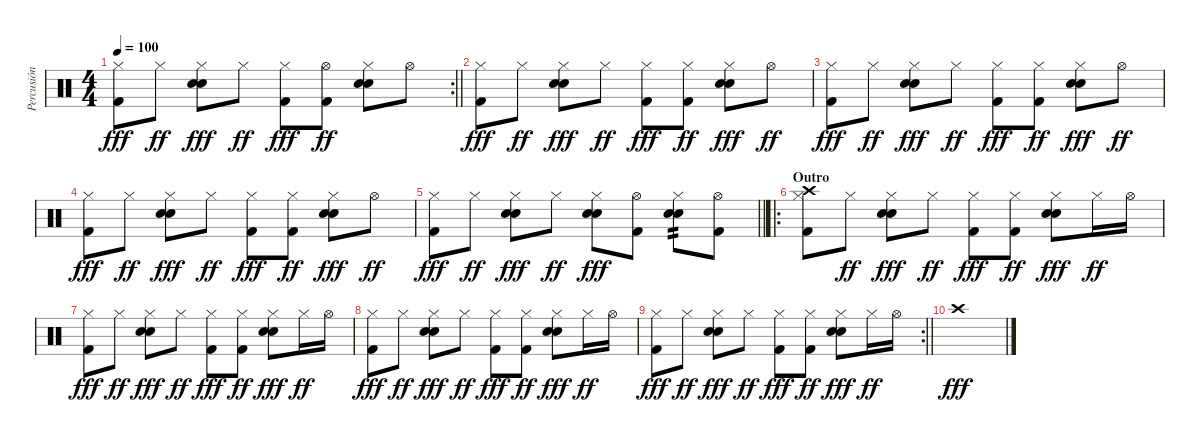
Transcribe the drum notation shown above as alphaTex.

\track ("Percusión" "Percusión") {instrument percussion}
\staff {score}
\articulation defaults
\rc 2
\ts (4 4)
\tempo 100
\clef neutral
\barLineRight lightlight
\ks c
("Hi-Hat (closed)" "Kick (hit) 2").8{dy fff} "Hi-Hat (closed)".8{dy ff} ("Hi-Hat (closed)" "Electric Snare (hit)" "Electric Snare (hit)").8{dy fff} "Hi-Hat (closed)".8{dy ff} ("Hi-Hat (closed)" "Kick (hit) 2").8{dy fff} ("Hi-Hat (open)" "Kick (hit) 2").8{dy ff} ("Hi-Hat (closed)" "Electric Snare (hit)" "Electric Snare (hit)").8 "Hi-Hat (open)".8 |
("Hi-Hat (closed)" "Kick (hit) 2").8{dy fff} "Hi-Hat (closed)".8{dy ff} ("Hi-Hat (closed)" "Electric Snare (hit)" "Electric Snare (hit)").8{dy fff} "Hi-Hat (closed)".8{dy ff} ("Hi-Hat (closed)" "Kick (hit) 2").8{dy fff} ("Hi-Hat (closed)" "Kick (hit) 2").8{dy ff} ("Hi-Hat (closed)" "Electric Snare (hit)" "Electric Snare (hit)").8{dy fff} "Hi-Hat (open)".8{dy ff} |
("Hi-Hat (closed)" "Kick (hit) 2").8{dy fff} "Hi-Hat (closed)".8{dy ff} ("Hi-Hat (closed)" "Electric Snare (hit)" "Electric Snare (hit)").8{dy fff} "Hi-Hat (closed)".8{dy ff} ("Hi-Hat (closed)" "Kick (hit) 2").8{dy fff} ("Hi-Hat (closed)" "Kick (hit) 2").8{dy ff} ("Hi-Hat (closed)" "Electric Snare (hit)" "Electric Snare (hit)").8{dy fff} "Hi-Hat (open)".8{dy ff} |
("Hi-Hat (closed)" "Kick (hit) 2").8{dy fff} "Hi-Hat (closed)".8{dy ff} ("Hi-Hat (closed)" "Electric Snare (hit)" "Electric Snare (hit)").8{dy fff} "Hi-Hat (closed)".8{dy ff} ("Hi-Hat (closed)" "Kick (hit) 2").8{dy fff} ("Hi-Hat (closed)" "Kick (hit) 2").8{dy ff} ("Hi-Hat (closed)" "Electric Snare (hit)" "Electric Snare (hit)").8{dy fff} "Hi-Hat (open)".8{dy ff} |
\barLineRight lightlight
("Hi-Hat (closed)" "Kick (hit) 2").8{dy fff} "Hi-Hat (closed)".8{dy ff} ("Hi-Hat (closed)" "Electric Snare (hit)" "Electric Snare (hit)").8{dy fff} "Hi-Hat (closed)".8{dy ff} ("Hi-Hat (closed)" "Electric Snare (hit)" "Electric Snare (hit)").8{dy fff} ("Hi-Hat (open)" "Kick (hit) 2").8 ("Hi-Hat (closed)" "Electric Snare (hit)" "Electric Snare (hit)").8{tp 2} ("Hi-Hat (open)" "Kick (hit) 2").8 |
\ro
\section ("" "Outro")
("Crash high (hit)" "Hi-Hat (closed)" "Kick (hit) 2").8 "Hi-Hat (closed)".8{dy ff} ("Hi-Hat (closed)" "Electric Snare (hit)" "Electric Snare (hit)").8{dy fff} "Hi-Hat (closed)".8{dy ff} ("Hi-Hat (closed)" "Kick (hit) 2").8{dy fff} ("Hi-Hat (closed)" "Kick (hit) 2").8{dy ff} ("Hi-Hat (closed)" "Electric Snare (hit)" "Electric Snare (hit)").8{dy fff} "Hi-Hat (closed)".16{dy ff} "Hi-Hat (open)".16 |
("Hi-Hat (closed)" "Kick (hit) 2").8{dy fff} "Hi-Hat (closed)".8{dy ff} ("Hi-Hat (closed)" "Electric Snare (hit)" "Electric Snare (hit)").8{dy fff} "Hi-Hat (closed)".8{dy ff} ("Hi-Hat (closed)" "Kick (hit) 2").8{dy fff} ("Hi-Hat (closed)" "Kick (hit) 2").8{dy ff} ("Hi-Hat (closed)" "Electric Snare (hit)" "Electric Snare (hit)").8{dy fff} "Hi-Hat (closed)".16{dy ff} "Hi-Hat (open)".16 |
("Hi-Hat (closed)" "Kick (hit) 2").8{dy fff} "Hi-Hat (closed)".8{dy ff} ("Hi-Hat (closed)" "Electric Snare (hit)" "Electric Snare (hit)").8{dy fff} "Hi-Hat (closed)".8{dy ff} ("Hi-Hat (closed)" "Kick (hit) 2").8{dy fff} ("Hi-Hat (closed)" "Kick (hit) 2").8{dy ff} ("Hi-Hat (closed)" "Electric Snare (hit)" "Electric Snare (hit)").8{dy fff} "Hi-Hat (closed)".16{dy ff} "Hi-Hat (open)".16 |
\rc 2
\barLineRight lightlight
("Hi-Hat (closed)" "Kick (hit) 2").8{dy fff} "Hi-Hat (closed)".8{dy ff} ("Hi-Hat (closed)" "Electric Snare (hit)" "Electric Snare (hit)").8{dy fff} "Hi-Hat (closed)".8{dy ff} ("Hi-Hat (closed)" "Kick (hit) 2").8{dy fff} ("Hi-Hat (closed)" "Kick (hit) 2").8{dy ff} ("Hi-Hat (closed)" "Electric Snare (hit)" "Electric Snare (hit)").8{dy fff} "Hi-Hat (closed)".16{dy ff} "Hi-Hat (open)".16 |
"Crash high (hit)".1{dy fff}
